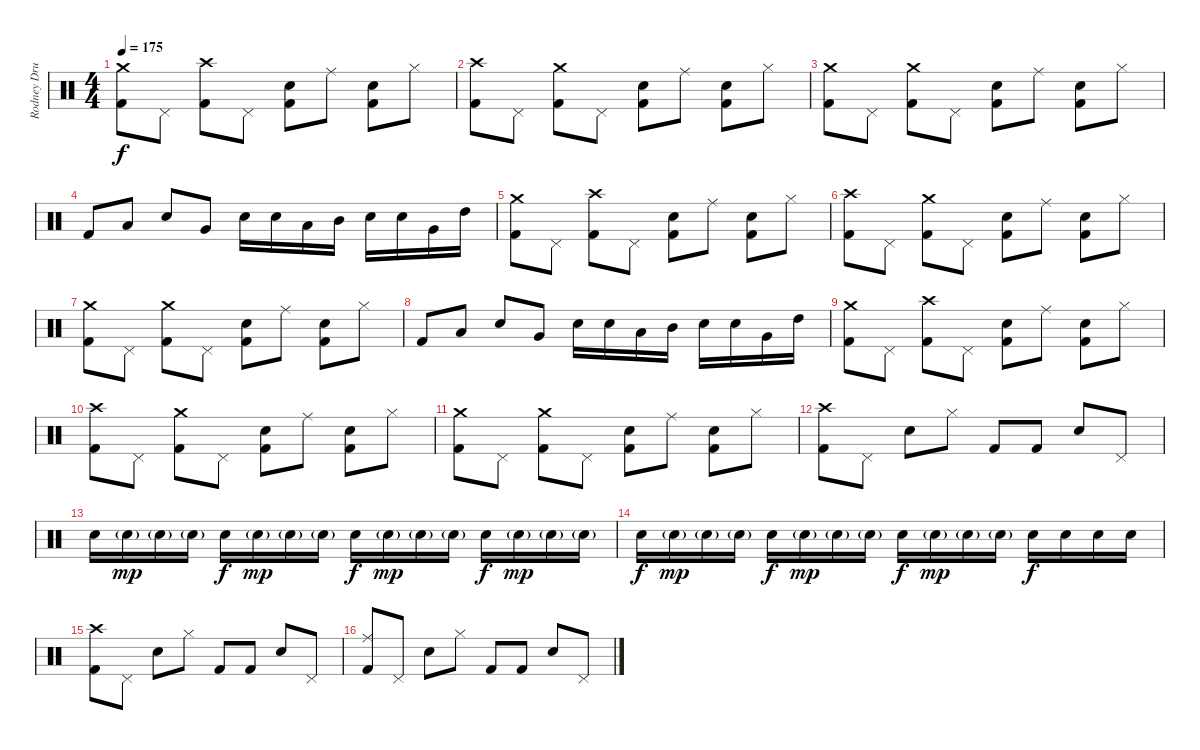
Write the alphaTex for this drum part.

\track ("Rodney Drums" "Rodney Dru") {instrument percussion}
\staff {score}
\articulation defaults
\ts (4 4)
\tempo 175
\clef neutral
\ks c
("Crash medium (hit)" "Kick (hit) 2").8{dy f} "Pedal Hi-Hat (hit)".8 ("Crash high (hit)" "Kick (hit) 2").8 "Pedal Hi-Hat (hit)".8 ("Electric Snare (hit)" "Kick (hit) 2").8 "Ride (middle)".8 ("Electric Snare (hit)" "Kick (hit) 2").8 "Hi-Hat (closed)".8 |
("Crash high (hit)" "Kick (hit) 2").8 "Pedal Hi-Hat (hit)".8 ("Crash medium (hit)" "Kick (hit) 2").8 "Pedal Hi-Hat (hit)".8 ("Electric Snare (hit)" "Kick (hit) 2").8 "Ride (middle)".8 ("Electric Snare (hit)" "Kick (hit) 2").8 "Hi-Hat (closed)".8 |
("Crash medium (hit)" "Kick (hit) 2").8 "Pedal Hi-Hat (hit)".8 ("Crash medium (hit)" "Kick (hit) 2").8 "Pedal Hi-Hat (hit)".8 ("Electric Snare (hit)" "Kick (hit) 2").8 "Ride (middle)".8 ("Electric Snare (hit)" "Kick (hit) 2").8 "Hi-Hat (closed)".8 |
"Kick (hit) 2".8 "Low Tom (hit)".8 "Electric Snare (hit)".8 "Very Low Tom (hit)".8 "Electric Snare (hit)".16 "Electric Snare (hit)".16 "Low Tom (hit)".16 "Mid Tom (hit)".16 "Electric Snare (hit)".16 "Electric Snare (hit)".16 "Very Low Tom (hit)".16 "High Tom (hit)".16 |
("Crash medium (hit)" "Kick (hit) 2").8 "Pedal Hi-Hat (hit)".8 ("Crash high (hit)" "Kick (hit) 2").8 "Pedal Hi-Hat (hit)".8 ("Electric Snare (hit)" "Kick (hit) 2").8 "Ride (middle)".8 ("Electric Snare (hit)" "Kick (hit) 2").8 "Hi-Hat (closed)".8 |
("Crash high (hit)" "Kick (hit) 2").8 "Pedal Hi-Hat (hit)".8 ("Crash medium (hit)" "Kick (hit) 2").8 "Pedal Hi-Hat (hit)".8 ("Electric Snare (hit)" "Kick (hit) 2").8 "Ride (middle)".8 ("Electric Snare (hit)" "Kick (hit) 2").8 "Hi-Hat (closed)".8 |
("Crash medium (hit)" "Kick (hit) 2").8 "Pedal Hi-Hat (hit)".8 ("Crash medium (hit)" "Kick (hit) 2").8 "Pedal Hi-Hat (hit)".8 ("Electric Snare (hit)" "Kick (hit) 2").8 "Ride (middle)".8 ("Electric Snare (hit)" "Kick (hit) 2").8 "Hi-Hat (closed)".8 |
"Kick (hit) 2".8 "Low Tom (hit)".8 "Electric Snare (hit)".8 "Very Low Tom (hit)".8 "Electric Snare (hit)".16 "Electric Snare (hit)".16 "Low Tom (hit)".16 "Mid Tom (hit)".16 "Electric Snare (hit)".16 "Electric Snare (hit)".16 "Very Low Tom (hit)".16 "High Tom (hit)".16 |
("Crash medium (hit)" "Kick (hit) 2").8 "Pedal Hi-Hat (hit)".8 ("Crash high (hit)" "Kick (hit) 2").8 "Pedal Hi-Hat (hit)".8 ("Electric Snare (hit)" "Kick (hit) 2").8 "Ride (middle)".8 ("Electric Snare (hit)" "Kick (hit) 2").8 "Hi-Hat (closed)".8 |
("Crash high (hit)" "Kick (hit) 2").8 "Pedal Hi-Hat (hit)".8 ("Crash medium (hit)" "Kick (hit) 2").8 "Pedal Hi-Hat (hit)".8 ("Electric Snare (hit)" "Kick (hit) 2").8 "Ride (middle)".8 ("Electric Snare (hit)" "Kick (hit) 2").8 "Hi-Hat (closed)".8 |
("Crash medium (hit)" "Kick (hit) 2").8 "Pedal Hi-Hat (hit)".8 ("Crash medium (hit)" "Kick (hit) 2").8 "Pedal Hi-Hat (hit)".8 ("Electric Snare (hit)" "Kick (hit) 2").8 "Ride (middle)".8 ("Electric Snare (hit)" "Kick (hit) 2").8 "Hi-Hat (closed)".8 |
("Crash high (hit)" "Kick (hit) 2").8 "Pedal Hi-Hat (hit)".8 "Electric Snare (hit)".8 "Hi-Hat (closed)".8 "Kick (hit) 2".8 "Kick (hit) 2".8 "Electric Snare (hit)".8 "Pedal Hi-Hat (hit)".8 |
"Electric Snare (hit)".16 "Electric Snare (hit)"{g}.16{dy mp} "Electric Snare (hit)"{g}.16 "Electric Snare (hit)"{g}.16 "Electric Snare (hit)".16{dy f} "Electric Snare (hit)"{g}.16{dy mp} "Electric Snare (hit)"{g}.16 "Electric Snare (hit)"{g}.16 "Electric Snare (hit)".16{dy f} "Electric Snare (hit)"{g}.16{dy mp} "Electric Snare (hit)"{g}.16 "Electric Snare (hit)"{g}.16 "Electric Snare (hit)".16{dy f} "Electric Snare (hit)"{g}.16{dy mp} "Electric Snare (hit)"{g}.16 "Electric Snare (hit)"{g}.16 |
"Electric Snare (hit)".16{dy f} "Electric Snare (hit)"{g}.16{dy mp} "Electric Snare (hit)"{g}.16 "Electric Snare (hit)"{g}.16 "Electric Snare (hit)".16{dy f} "Electric Snare (hit)"{g}.16{dy mp} "Electric Snare (hit)"{g}.16 "Electric Snare (hit)"{g}.16 "Electric Snare (hit)".16{dy f} "Electric Snare (hit)"{g}.16{dy mp} "Electric Snare (hit)"{g}.16 "Electric Snare (hit)"{g}.16 "Electric Snare (hit)".16{dy f} "Electric Snare (hit)".16 "Electric Snare (hit)".16 "Electric Snare (hit)".16 |
("Crash high (hit)" "Kick (hit) 2").8 "Pedal Hi-Hat (hit)".8 "Electric Snare (hit)".8 "Hi-Hat (closed)".8 "Kick (hit) 2".8 "Kick (hit) 2".8 "Electric Snare (hit)".8 "Pedal Hi-Hat (hit)".8 |
("Ride (middle)" "Kick (hit) 2").8 "Pedal Hi-Hat (hit)".8 "Electric Snare (hit)".8 "Hi-Hat (closed)".8 "Kick (hit) 2".8 "Kick (hit) 2".8 "Electric Snare (hit)".8 "Pedal Hi-Hat (hit)".8
